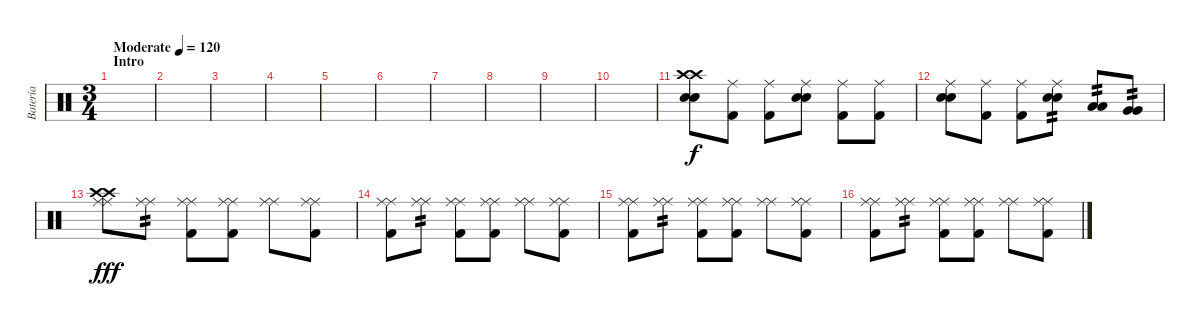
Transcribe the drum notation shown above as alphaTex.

\track ("Batería" "Batería") {instrument percussion}
\staff {score}
\articulation defaults
\ts (3 4)
\section ("" "Intro")
\tempo (120 "Moderate")
\clef neutral
\ks c
|
|
|
|
|
|
|
|
|
|
("Crash high (hit)" "Crash high (hit)" "Electric Snare (hit)" "Electric Snare (hit)").8 ("Ride (middle)" "Kick (hit) 2").8 ("Ride (middle)" "Kick (hit) 2").8 ("Ride (middle)" "Electric Snare (hit)" "Electric Snare (hit)").8 ("Ride (middle)" "Kick (hit) 2").8 ("Ride (middle)" "Kick (hit) 2").8 |
("Ride (middle)" "Electric Snare (hit)" "Electric Snare (hit)").8 ("Ride (middle)" "Kick (hit) 2").8 ("Ride (middle)" "Kick (hit) 2").8 ("Ride (middle)" "Electric Snare (hit)" "Electric Snare (hit)").8{tp 2} ("Low Tom (hit)" "Low Tom (hit)").8{tp 2} ("Very Low Tom (hit)" "Very Low Tom (hit)").8{tp 2 dy f} |
("Ride (middle)" "Ride (middle)" "Crash high (hit)" "Crash high (hit)").8{dy fff} ("Ride (middle)" "Ride (middle)").8{tp 2} ("Ride (middle)" "Ride (middle)" "Kick (hit) 2").8 ("Ride (middle)" "Ride (middle)" "Kick (hit) 2").8 ("Ride (middle)" "Ride (middle)").8 ("Ride (middle)" "Ride (middle)" "Kick (hit) 2").8 |
("Ride (middle)" "Ride (middle)" "Kick (hit) 2").8 ("Ride (middle)" "Ride (middle)").8{tp 2} ("Ride (middle)" "Ride (middle)" "Kick (hit) 2").8 ("Ride (middle)" "Ride (middle)" "Kick (hit) 2").8 ("Ride (middle)" "Ride (middle)").8 ("Ride (middle)" "Ride (middle)" "Kick (hit) 2").8 |
("Ride (middle)" "Ride (middle)" "Kick (hit) 2").8 ("Ride (middle)" "Ride (middle)").8{tp 2} ("Ride (middle)" "Ride (middle)" "Kick (hit) 2").8 ("Ride (middle)" "Ride (middle)" "Kick (hit) 2").8 ("Ride (middle)" "Ride (middle)").8 ("Ride (middle)" "Ride (middle)" "Kick (hit) 2").8 |
("Ride (middle)" "Ride (middle)" "Kick (hit) 2").8 ("Ride (middle)" "Ride (middle)").8{tp 2} ("Ride (middle)" "Ride (middle)" "Kick (hit) 2").8 ("Ride (middle)" "Ride (middle)" "Kick (hit) 2").8 ("Ride (middle)" "Ride (middle)").8 ("Ride (middle)" "Ride (middle)" "Kick (hit) 2").8
